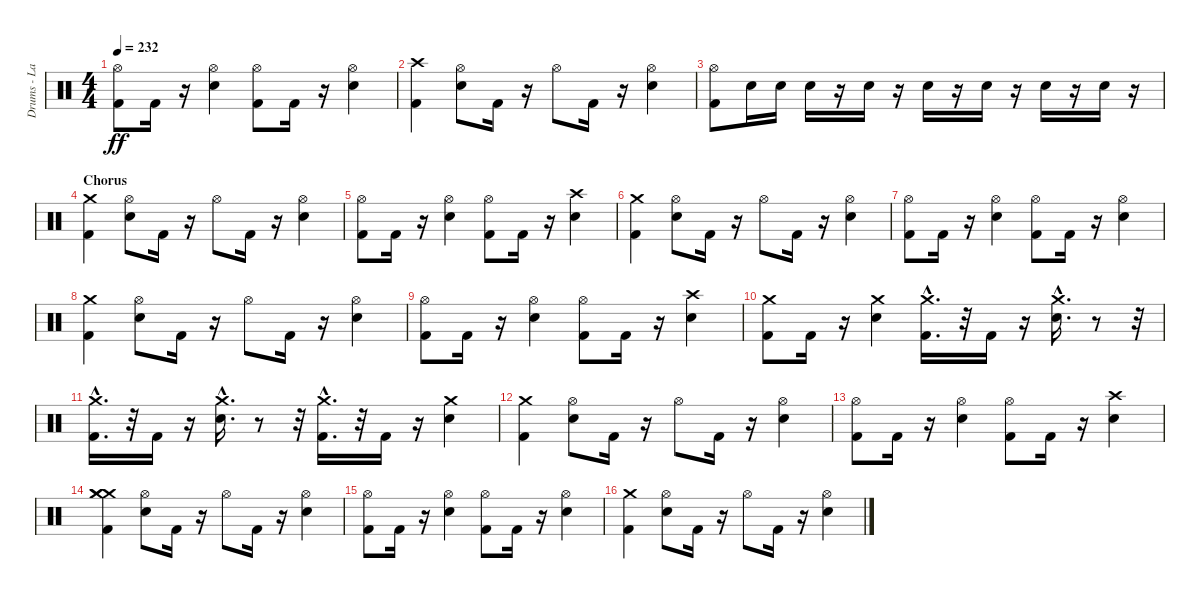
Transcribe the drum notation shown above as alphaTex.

\track ("Drums - Larzon" "Drums - La") {instrument percussion}
\staff {score}
\articulation defaults
\ts (4 4)
\tempo 232
\clef neutral
\ks c
("Kick (hit) 2" "Hi-Hat (open)").8{dy ff} "Kick (hit) 2".16 r.16 ("Electric Snare (hit)" "Hi-Hat (open)").4 ("Kick (hit) 2" "Hi-Hat (open)").8 "Kick (hit) 2".16 r.16 ("Electric Snare (hit)" "Hi-Hat (open)").4 |
("Crash high (hit)" "Kick (hit) 2").4 ("Hi-Hat (open)" "Electric Snare (hit)").8 "Kick (hit) 2".16 r.16 "Hi-Hat (open)".8 "Kick (hit) 2".16 r.16 ("Hi-Hat (open)" "Electric Snare (hit)").4 |
("Hi-Hat (open)" "Kick (hit) 2").8 "Electric Snare (hit)".16 "Electric Snare (hit)".16 "Electric Snare (hit)".16 r.16 "Electric Snare (hit)".16 r.16 "Electric Snare (hit)".16 r.16 "Electric Snare (hit)".16 r.16 "Electric Snare (hit)".16 r.16 "Electric Snare (hit)".16 r.16 |
\section ("" "Chorus")
("Kick (hit) 2" "Crash medium (hit)").4 ("Electric Snare (hit)" "Hi-Hat (open)").8 "Kick (hit) 2".16 r.16 "Hi-Hat (open)".8 "Kick (hit) 2".16 r.16 ("Electric Snare (hit)" "Hi-Hat (open)").4 |
("Kick (hit) 2" "Hi-Hat (open)").8 "Kick (hit) 2".16 r.16 ("Electric Snare (hit)" "Hi-Hat (open)").4 ("Kick (hit) 2" "Hi-Hat (open)").8 "Kick (hit) 2".16 r.16 ("Electric Snare (hit)" "Crash high (hit)").4 |
("Kick (hit) 2" "Crash medium (hit)").4 ("Electric Snare (hit)" "Hi-Hat (open)").8 "Kick (hit) 2".16 r.16 "Hi-Hat (open)".8 "Kick (hit) 2".16 r.16 ("Electric Snare (hit)" "Hi-Hat (open)").4 |
("Kick (hit) 2" "Hi-Hat (open)").8 "Kick (hit) 2".16 r.16 ("Electric Snare (hit)" "Hi-Hat (open)").4 ("Kick (hit) 2" "Hi-Hat (open)").8 "Kick (hit) 2".16 r.16 ("Electric Snare (hit)" "Hi-Hat (open)").4 |
("Kick (hit) 2" "Crash medium (hit)").4 ("Electric Snare (hit)" "Hi-Hat (open)").8 "Kick (hit) 2".16 r.16 "Hi-Hat (open)".8 "Kick (hit) 2".16 r.16 ("Electric Snare (hit)" "Hi-Hat (open)").4 |
("Kick (hit) 2" "Hi-Hat (open)").8 "Kick (hit) 2".16 r.16 ("Electric Snare (hit)" "Hi-Hat (open)").4 ("Kick (hit) 2" "Hi-Hat (open)").8 "Kick (hit) 2".16 r.16 ("Electric Snare (hit)" "Crash high (hit)").4 |
("Kick (hit) 2" "Crash medium (hit)").8 "Kick (hit) 2".16 r.16 ("Electric Snare (hit)" "Crash medium (hit)").4 ("Crash medium (hit)"{hac} "Kick (hit) 2").16{d} r.32 "Kick (hit) 2".16 r.16 ("Electric Snare (hit)" "Crash medium (hit)"{hac}).16{d} r.8 r.32 |
("Kick (hit) 2" "Crash medium (hit)"{hac}).16{d} r.32 "Kick (hit) 2".16 r.16 ("Electric Snare (hit)" "Crash medium (hit)"{hac}).16{d} r.8 r.32 ("Kick (hit) 2" "Crash medium (hit)"{hac}).16{d} r.32 "Kick (hit) 2".16 r.16 ("Electric Snare (hit)" "Crash medium (hit)").4 |
("Kick (hit) 2" "Crash medium (hit)").4 ("Electric Snare (hit)" "Hi-Hat (open)").8 "Kick (hit) 2".16 r.16 "Hi-Hat (open)".8 "Kick (hit) 2".16 r.16 ("Electric Snare (hit)" "Hi-Hat (open)").4 |
("Kick (hit) 2" "Hi-Hat (open)").8 "Kick (hit) 2".16 r.16 ("Electric Snare (hit)" "Hi-Hat (open)").4 ("Kick (hit) 2" "Hi-Hat (open)").8 "Kick (hit) 2".16 r.16 ("Electric Snare (hit)" "Crash high (hit)").4 |
("Crash medium (hit)" "Crash medium (hit)" "Kick (hit) 2" "Crash medium (hit)").4 ("Electric Snare (hit)" "Hi-Hat (open)").8 "Kick (hit) 2".16 r.16 "Hi-Hat (open)".8 "Kick (hit) 2".16 r.16 ("Electric Snare (hit)" "Hi-Hat (open)").4 |
("Kick (hit) 2" "Hi-Hat (open)").8 "Kick (hit) 2".16 r.16 ("Electric Snare (hit)" "Hi-Hat (open)").4 ("Kick (hit) 2" "Hi-Hat (open)").8 "Kick (hit) 2".16 r.16 ("Electric Snare (hit)" "Hi-Hat (open)").4 |
("Kick (hit) 2" "Crash medium (hit)").4 ("Electric Snare (hit)" "Hi-Hat (open)").8 "Kick (hit) 2".16 r.16 "Hi-Hat (open)".8 "Kick (hit) 2".16 r.16 ("Electric Snare (hit)" "Hi-Hat (open)").4
